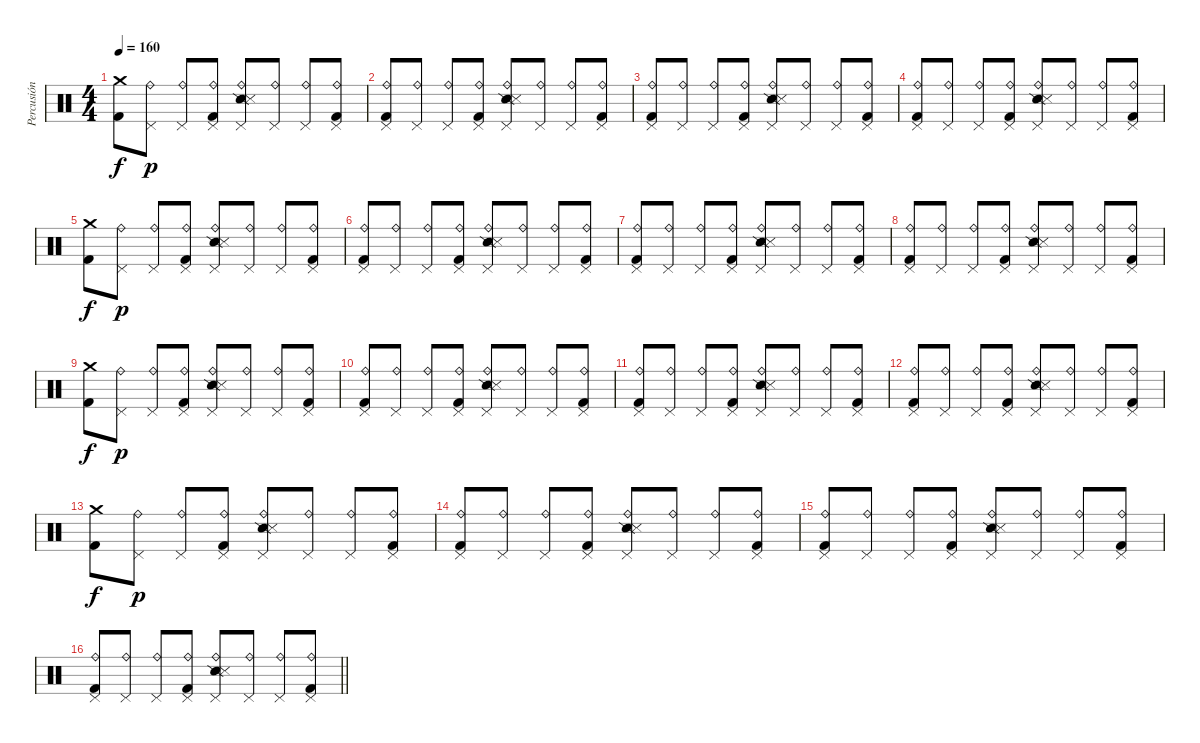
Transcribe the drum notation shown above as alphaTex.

\track ("Percusión" "Percusión") {instrument percussion}
\staff {score}
\articulation defaults
\ts (4 4)
\tempo 160
\clef neutral
\ks c
("Crash medium (hit)" "Kick (hit) 2").8{dy f} ("Ride (bell)" "Pedal Hi-Hat (hit)").8{dy p} ("Ride (bell)" "Pedal Hi-Hat (hit)").8 ("Ride (bell)" "Pedal Hi-Hat (hit)" "Kick (hit) 2").8 ("Ride (bell)" "Pedal Hi-Hat (hit)" "Snare (side stick) 2" "Metronome (hit)").8 ("Ride (bell)" "Pedal Hi-Hat (hit)").8 ("Ride (bell)" "Pedal Hi-Hat (hit)").8 ("Ride (bell)" "Pedal Hi-Hat (hit)" "Kick (hit) 2").8 |
("Ride (bell)" "Pedal Hi-Hat (hit)" "Kick (hit) 2").8 ("Ride (bell)" "Pedal Hi-Hat (hit)").8 ("Ride (bell)" "Pedal Hi-Hat (hit)").8 ("Ride (bell)" "Pedal Hi-Hat (hit)" "Kick (hit) 2").8 ("Ride (bell)" "Pedal Hi-Hat (hit)" "Snare (side stick) 2" "Metronome (hit)").8 ("Ride (bell)" "Pedal Hi-Hat (hit)").8 ("Ride (bell)" "Pedal Hi-Hat (hit)").8 ("Ride (bell)" "Pedal Hi-Hat (hit)" "Kick (hit) 2").8 |
("Ride (bell)" "Pedal Hi-Hat (hit)" "Kick (hit) 2").8 ("Ride (bell)" "Pedal Hi-Hat (hit)").8 ("Ride (bell)" "Pedal Hi-Hat (hit)").8 ("Ride (bell)" "Pedal Hi-Hat (hit)" "Kick (hit) 2").8 ("Ride (bell)" "Pedal Hi-Hat (hit)" "Snare (side stick) 2" "Metronome (hit)").8 ("Ride (bell)" "Pedal Hi-Hat (hit)").8 ("Ride (bell)" "Pedal Hi-Hat (hit)").8 ("Ride (bell)" "Pedal Hi-Hat (hit)" "Kick (hit) 2").8 |
("Ride (bell)" "Pedal Hi-Hat (hit)" "Kick (hit) 2").8 ("Ride (bell)" "Pedal Hi-Hat (hit)").8 ("Ride (bell)" "Pedal Hi-Hat (hit)").8 ("Ride (bell)" "Pedal Hi-Hat (hit)" "Kick (hit) 2").8 ("Ride (bell)" "Pedal Hi-Hat (hit)" "Snare (side stick) 2" "Metronome (hit)").8 ("Ride (bell)" "Pedal Hi-Hat (hit)").8 ("Ride (bell)" "Pedal Hi-Hat (hit)").8 ("Ride (bell)" "Pedal Hi-Hat (hit)" "Kick (hit) 2").8 |
("Crash medium (hit)" "Kick (hit) 2").8{dy f} ("Ride (bell)" "Pedal Hi-Hat (hit)").8{dy p} ("Ride (bell)" "Pedal Hi-Hat (hit)").8 ("Ride (bell)" "Pedal Hi-Hat (hit)" "Kick (hit) 2").8 ("Ride (bell)" "Pedal Hi-Hat (hit)" "Snare (side stick) 2" "Metronome (hit)").8 ("Ride (bell)" "Pedal Hi-Hat (hit)").8 ("Ride (bell)" "Pedal Hi-Hat (hit)").8 ("Ride (bell)" "Pedal Hi-Hat (hit)" "Kick (hit) 2").8 |
("Ride (bell)" "Pedal Hi-Hat (hit)" "Kick (hit) 2").8 ("Ride (bell)" "Pedal Hi-Hat (hit)").8 ("Ride (bell)" "Pedal Hi-Hat (hit)").8 ("Ride (bell)" "Pedal Hi-Hat (hit)" "Kick (hit) 2").8 ("Ride (bell)" "Pedal Hi-Hat (hit)" "Snare (side stick) 2" "Metronome (hit)").8 ("Ride (bell)" "Pedal Hi-Hat (hit)").8 ("Ride (bell)" "Pedal Hi-Hat (hit)").8 ("Ride (bell)" "Pedal Hi-Hat (hit)" "Kick (hit) 2").8 |
("Ride (bell)" "Pedal Hi-Hat (hit)" "Kick (hit) 2").8 ("Ride (bell)" "Pedal Hi-Hat (hit)").8 ("Ride (bell)" "Pedal Hi-Hat (hit)").8 ("Ride (bell)" "Pedal Hi-Hat (hit)" "Kick (hit) 2").8 ("Ride (bell)" "Pedal Hi-Hat (hit)" "Snare (side stick) 2" "Metronome (hit)").8 ("Ride (bell)" "Pedal Hi-Hat (hit)").8 ("Ride (bell)" "Pedal Hi-Hat (hit)").8 ("Ride (bell)" "Pedal Hi-Hat (hit)" "Kick (hit) 2").8 |
("Ride (bell)" "Pedal Hi-Hat (hit)" "Kick (hit) 2").8 ("Ride (bell)" "Pedal Hi-Hat (hit)").8 ("Ride (bell)" "Pedal Hi-Hat (hit)").8 ("Ride (bell)" "Pedal Hi-Hat (hit)" "Kick (hit) 2").8 ("Ride (bell)" "Pedal Hi-Hat (hit)" "Snare (side stick) 2" "Metronome (hit)").8 ("Ride (bell)" "Pedal Hi-Hat (hit)").8 ("Ride (bell)" "Pedal Hi-Hat (hit)").8 ("Ride (bell)" "Pedal Hi-Hat (hit)" "Kick (hit) 2").8 |
("Crash medium (hit)" "Kick (hit) 2").8{dy f} ("Ride (bell)" "Pedal Hi-Hat (hit)").8{dy p} ("Ride (bell)" "Pedal Hi-Hat (hit)").8 ("Ride (bell)" "Pedal Hi-Hat (hit)" "Kick (hit) 2").8 ("Ride (bell)" "Pedal Hi-Hat (hit)" "Snare (side stick) 2" "Metronome (hit)").8 ("Ride (bell)" "Pedal Hi-Hat (hit)").8 ("Ride (bell)" "Pedal Hi-Hat (hit)").8 ("Ride (bell)" "Pedal Hi-Hat (hit)" "Kick (hit) 2").8 |
("Ride (bell)" "Pedal Hi-Hat (hit)" "Kick (hit) 2").8 ("Ride (bell)" "Pedal Hi-Hat (hit)").8 ("Ride (bell)" "Pedal Hi-Hat (hit)").8 ("Ride (bell)" "Pedal Hi-Hat (hit)" "Kick (hit) 2").8 ("Ride (bell)" "Pedal Hi-Hat (hit)" "Snare (side stick) 2" "Metronome (hit)").8 ("Ride (bell)" "Pedal Hi-Hat (hit)").8 ("Ride (bell)" "Pedal Hi-Hat (hit)").8 ("Ride (bell)" "Pedal Hi-Hat (hit)" "Kick (hit) 2").8 |
("Ride (bell)" "Pedal Hi-Hat (hit)" "Kick (hit) 2").8 ("Ride (bell)" "Pedal Hi-Hat (hit)").8 ("Ride (bell)" "Pedal Hi-Hat (hit)").8 ("Ride (bell)" "Pedal Hi-Hat (hit)" "Kick (hit) 2").8 ("Ride (bell)" "Pedal Hi-Hat (hit)" "Snare (side stick) 2" "Metronome (hit)").8 ("Ride (bell)" "Pedal Hi-Hat (hit)").8 ("Ride (bell)" "Pedal Hi-Hat (hit)").8 ("Ride (bell)" "Pedal Hi-Hat (hit)" "Kick (hit) 2").8 |
("Ride (bell)" "Pedal Hi-Hat (hit)" "Kick (hit) 2").8 ("Ride (bell)" "Pedal Hi-Hat (hit)").8 ("Ride (bell)" "Pedal Hi-Hat (hit)").8 ("Ride (bell)" "Pedal Hi-Hat (hit)" "Kick (hit) 2").8 ("Ride (bell)" "Pedal Hi-Hat (hit)" "Snare (side stick) 2" "Metronome (hit)").8 ("Ride (bell)" "Pedal Hi-Hat (hit)").8 ("Ride (bell)" "Pedal Hi-Hat (hit)").8 ("Ride (bell)" "Pedal Hi-Hat (hit)" "Kick (hit) 2").8 |
("Crash medium (hit)" "Kick (hit) 2").8{dy f} ("Ride (bell)" "Pedal Hi-Hat (hit)").8{dy p} ("Ride (bell)" "Pedal Hi-Hat (hit)").8 ("Ride (bell)" "Pedal Hi-Hat (hit)" "Kick (hit) 2").8 ("Ride (bell)" "Pedal Hi-Hat (hit)" "Snare (side stick) 2" "Metronome (hit)").8 ("Ride (bell)" "Pedal Hi-Hat (hit)").8 ("Ride (bell)" "Pedal Hi-Hat (hit)").8 ("Ride (bell)" "Pedal Hi-Hat (hit)" "Kick (hit) 2").8 |
("Ride (bell)" "Pedal Hi-Hat (hit)" "Kick (hit) 2").8 ("Ride (bell)" "Pedal Hi-Hat (hit)").8 ("Ride (bell)" "Pedal Hi-Hat (hit)").8 ("Ride (bell)" "Pedal Hi-Hat (hit)" "Kick (hit) 2").8 ("Ride (bell)" "Pedal Hi-Hat (hit)" "Snare (side stick) 2" "Metronome (hit)").8 ("Ride (bell)" "Pedal Hi-Hat (hit)").8 ("Ride (bell)" "Pedal Hi-Hat (hit)").8 ("Ride (bell)" "Pedal Hi-Hat (hit)" "Kick (hit) 2").8 |
("Ride (bell)" "Pedal Hi-Hat (hit)" "Kick (hit) 2").8 ("Ride (bell)" "Pedal Hi-Hat (hit)").8 ("Ride (bell)" "Pedal Hi-Hat (hit)").8 ("Ride (bell)" "Pedal Hi-Hat (hit)" "Kick (hit) 2").8 ("Ride (bell)" "Pedal Hi-Hat (hit)" "Snare (side stick) 2" "Metronome (hit)").8 ("Ride (bell)" "Pedal Hi-Hat (hit)").8 ("Ride (bell)" "Pedal Hi-Hat (hit)").8 ("Ride (bell)" "Pedal Hi-Hat (hit)" "Kick (hit) 2").8 |
\barLineRight lightlight
("Ride (bell)" "Pedal Hi-Hat (hit)" "Kick (hit) 2").8 ("Ride (bell)" "Pedal Hi-Hat (hit)").8 ("Ride (bell)" "Pedal Hi-Hat (hit)").8 ("Ride (bell)" "Pedal Hi-Hat (hit)" "Kick (hit) 2").8 ("Ride (bell)" "Pedal Hi-Hat (hit)" "Snare (side stick) 2" "Metronome (hit)").8 ("Ride (bell)" "Pedal Hi-Hat (hit)").8 ("Ride (bell)" "Pedal Hi-Hat (hit)").8 ("Ride (bell)" "Pedal Hi-Hat (hit)" "Kick (hit) 2").8
